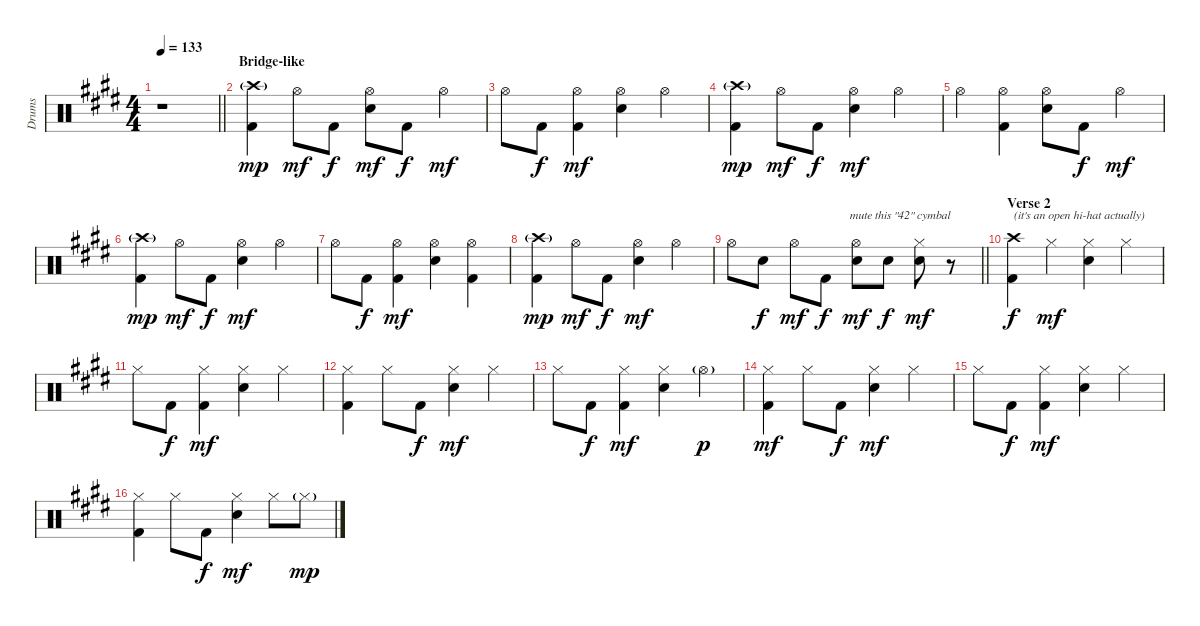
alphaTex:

\track ("Drums" "Drums") {instrument percussion}
\staff {score}
\articulation defaults
\ts (4 4)
\tempo 133
\clef neutral
\barLineRight lightlight
\ks e
r.1{dy mp} |
\section ("" "Bridge-like")
("Crash high (hit)"{g} "Kick (hit) 2").4{volume 11} "Hi-Hat (open)".8{dy mf} "Kick (hit) 2".8{dy f} ("Hi-Hat (open)" "Electric Snare (hit)").8{dy mf} "Kick (hit) 2".8{dy f} "Hi-Hat (open)".4{dy mf} |
"Hi-Hat (open)".8 "Kick (hit) 2".8{dy f} ("Hi-Hat (open)" "Kick (hit) 2").4{dy mf} ("Hi-Hat (open)" "Electric Snare (hit)").4 "Hi-Hat (open)".4 |
("Crash high (hit)"{g} "Kick (hit) 2").4{dy mp} "Hi-Hat (open)".8{dy mf} "Kick (hit) 2".8{dy f} ("Hi-Hat (open)" "Electric Snare (hit)").4{dy mf} "Hi-Hat (open)".4 |
"Hi-Hat (open)".4 ("Hi-Hat (open)" "Kick (hit) 2").4 ("Hi-Hat (open)" "Electric Snare (hit)").8 "Kick (hit) 2".8{dy f} "Hi-Hat (open)".4{dy mf} |
("Crash high (hit)"{g} "Kick (hit) 2").4{dy mp} "Hi-Hat (open)".8{dy mf} "Kick (hit) 2".8{dy f} ("Hi-Hat (open)" "Electric Snare (hit)").4{dy mf} "Hi-Hat (open)".4 |
"Hi-Hat (open)".8 "Kick (hit) 2".8{dy f} ("Hi-Hat (open)" "Kick (hit) 2").4{dy mf} ("Hi-Hat (open)" "Electric Snare (hit)").4 ("Hi-Hat (open)" "Kick (hit) 2").4 |
("Crash high (hit)"{g} "Kick (hit) 2").4{dy mp} "Hi-Hat (open)".8{dy mf} "Kick (hit) 2".8{dy f} ("Hi-Hat (open)" "Electric Snare (hit)").4{dy mf} "Hi-Hat (open)".4 |
\barLineRight lightlight "Hi-Hat (open)".8 "Electric Snare (hit)".8{dy f} "Hi-Hat (open)".8{dy mf} "Kick (hit) 2".8{txt "        mute this \"42\" cymbal" dy f}
("Hi-Hat (open)" "Electric Snare (hit)").8{dy mf} "Electric Snare (hit)".8{dy f} ("Hi-Hat (closed)" "Electric Snare (hit)").8{dy mf} r.8 |
\section ("" "Verse 2")
("Crash high (hit)" "Kick (hit) 2").4{txt "(it's an open hi-hat actually)" dy f volume 9} "Hi-Hat (closed)".4{dy mf} ("Hi-Hat (closed)" "Electric Snare (hit)").4 "Hi-Hat (closed)".4 |
"Hi-Hat (closed)".8 "Kick (hit) 2".8{dy f} ("Hi-Hat (closed)" "Kick (hit) 2").4{dy mf} ("Hi-Hat (closed)" "Electric Snare (hit)").4 "Hi-Hat (closed)".4 |
("Hi-Hat (closed)" "Kick (hit) 2").4 "Hi-Hat (closed)".8 "Kick (hit) 2".8{dy f} ("Hi-Hat (closed)" "Electric Snare (hit)").4{dy mf} "Hi-Hat (closed)".4 |
"Hi-Hat (closed)".8 "Kick (hit) 2".8{dy f} ("Hi-Hat (closed)" "Kick (hit) 2").4{dy mf} ("Hi-Hat (closed)" "Electric Snare (hit)").4 "Hi-Hat (open)"{g}.4{dy p} |
("Hi-Hat (closed)" "Kick (hit) 2").4{dy mf} "Hi-Hat (closed)".8 "Kick (hit) 2".8{dy f} ("Hi-Hat (closed)" "Electric Snare (hit)").4{dy mf} "Hi-Hat (closed)".4 |
"Hi-Hat (closed)".8 "Kick (hit) 2".8{dy f} ("Hi-Hat (closed)" "Kick (hit) 2").4{dy mf} ("Hi-Hat (closed)" "Electric Snare (hit)").4 "Hi-Hat (closed)".4 |
("Hi-Hat (closed)" "Kick (hit) 2").4 "Hi-Hat (closed)".8 "Kick (hit) 2".8{dy f} ("Hi-Hat (closed)" "Electric Snare (hit)").4{dy mf} "Hi-Hat (closed)".8 "Hi-Hat (closed)"{g}.8{dy mp}
